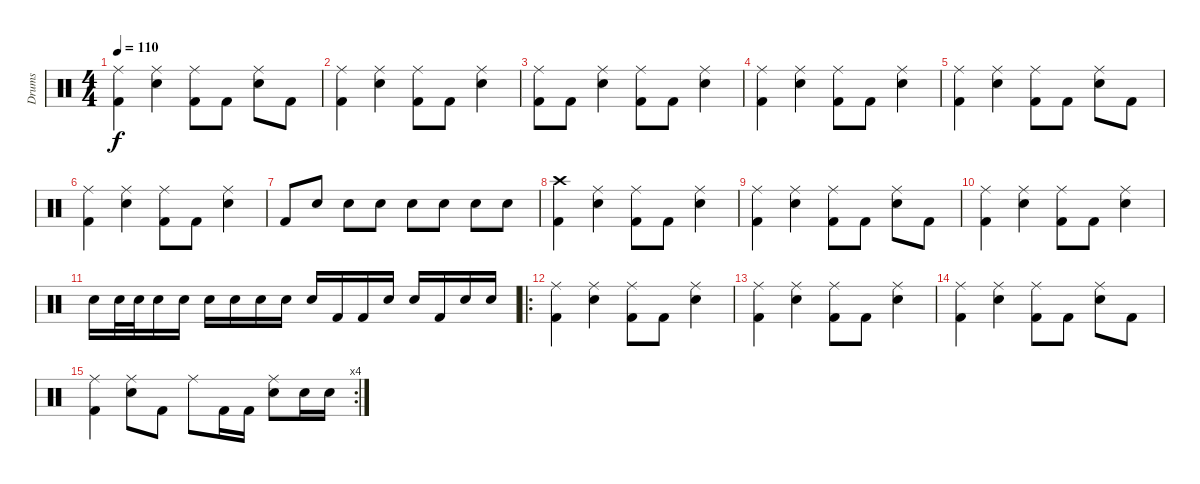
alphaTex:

\track ("Drums" "Drums") {instrument percussion}
\staff {score}
\articulation defaults
\ts (4 4)
\tempo 110
\clef neutral
\ks c
("Ride (middle)" "Kick (hit) 2").4{dy f} ("Ride (middle)" "Electric Snare (hit)").4 ("Ride (middle)" "Kick (hit) 2").8 "Kick (hit) 2".8 ("Ride (middle)" "Electric Snare (hit)").8 "Kick (hit) 2".8 |
("Ride (middle)" "Kick (hit) 2").4 ("Ride (middle)" "Electric Snare (hit)").4 ("Ride (middle)" "Kick (hit) 2").8 "Kick (hit) 2".8 ("Ride (middle)" "Electric Snare (hit)").4 |
("Ride (middle)" "Kick (hit) 2").8 "Kick (hit) 2".8 ("Ride (middle)" "Electric Snare (hit)").4 ("Ride (middle)" "Kick (hit) 2").8 "Kick (hit) 2".8 ("Ride (middle)" "Electric Snare (hit)").4 |
("Ride (middle)" "Kick (hit) 2").4 ("Ride (middle)" "Electric Snare (hit)").4 ("Ride (middle)" "Kick (hit) 2").8 "Kick (hit) 2".8 ("Ride (middle)" "Electric Snare (hit)").4 |
("Ride (middle)" "Kick (hit) 2").4 ("Ride (middle)" "Electric Snare (hit)").4 ("Ride (middle)" "Kick (hit) 2").8 "Kick (hit) 2".8 ("Ride (middle)" "Electric Snare (hit)").8 "Kick (hit) 2".8 |
("Ride (middle)" "Kick (hit) 2").4 ("Ride (middle)" "Electric Snare (hit)").4 ("Ride (middle)" "Kick (hit) 2").8 "Kick (hit) 2".8 ("Ride (middle)" "Electric Snare (hit)").4 |
"Kick (hit) 2".8 "Electric Snare (hit)".8 "Electric Snare (hit)".8 "Electric Snare (hit)".8 "Electric Snare (hit)".8 "Electric Snare (hit)".8 "Electric Snare (hit)".8 "Electric Snare (hit)".8 |
("Crash high (hit)" "Kick (hit) 2").4 ("Ride (middle)" "Electric Snare (hit)").4 ("Ride (middle)" "Kick (hit) 2").8 "Kick (hit) 2".8 ("Ride (middle)" "Electric Snare (hit)").4 |
("Ride (middle)" "Kick (hit) 2").4 ("Ride (middle)" "Electric Snare (hit)").4 ("Ride (middle)" "Kick (hit) 2").8 "Kick (hit) 2".8 ("Ride (middle)" "Electric Snare (hit)").8 "Kick (hit) 2".8 |
("Ride (middle)" "Kick (hit) 2").4 ("Ride (middle)" "Electric Snare (hit)").4 ("Ride (middle)" "Kick (hit) 2").8 "Kick (hit) 2".8 ("Ride (middle)" "Electric Snare (hit)").4 |
"Electric Snare (hit)".16 "Electric Snare (hit)".32 "Electric Snare (hit)".32 "Electric Snare (hit)".16 "Electric Snare (hit)".16 "Electric Snare (hit)".16 "Electric Snare (hit)".16 "Electric Snare (hit)".16 "Electric Snare (hit)".16 "Electric Snare (hit)".16 "Kick (hit) 2".16 "Kick (hit) 2".16 "Electric Snare (hit)".16 "Electric Snare (hit)".16 "Kick (hit) 2".16 "Electric Snare (hit)".16 "Electric Snare (hit)".16 |
\ro
("Ride (middle)" "Kick (hit) 2").4 ("Ride (middle)" "Electric Snare (hit)").4 ("Ride (middle)" "Kick (hit) 2").8 "Kick (hit) 2".8 ("Ride (middle)" "Electric Snare (hit)").4 |
("Ride (middle)" "Kick (hit) 2").4 ("Ride (middle)" "Electric Snare (hit)").4 ("Ride (middle)" "Kick (hit) 2").8 "Kick (hit) 2".8 ("Ride (middle)" "Electric Snare (hit)").4 |
("Ride (middle)" "Kick (hit) 2").4 ("Ride (middle)" "Electric Snare (hit)").4 ("Ride (middle)" "Kick (hit) 2").8 "Kick (hit) 2".8 ("Ride (middle)" "Electric Snare (hit)").8 "Kick (hit) 2".8 |
\rc 4
("Ride (middle)" "Kick (hit) 2").4 ("Ride (middle)" "Electric Snare (hit)").8 "Kick (hit) 2".8 "Ride (middle)".8 "Kick (hit) 2".16 "Kick (hit) 2".16 ("Ride (middle)" "Electric Snare (hit)").8 "Electric Snare (hit)".16 "Electric Snare (hit)".16
